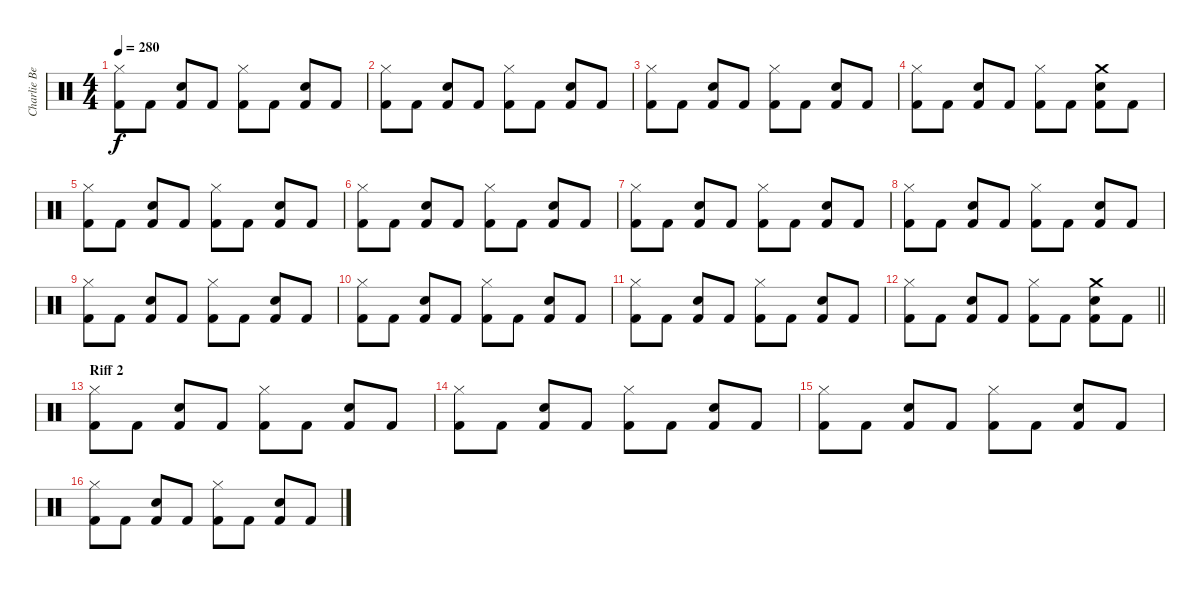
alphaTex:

\track ("Charlie Benante" "Charlie Be") {instrument percussion}
\staff {score}
\articulation defaults
\ts (4 4)
\tempo 280
\clef neutral
\ks c
("Hi-Hat (closed)" "Kick (hit) 2").8{dy f} "Kick (hit) 2".8 ("Snare (hit) 2" "Kick (hit) 2").8 "Kick (hit) 2".8 ("Hi-Hat (closed)" "Kick (hit) 2").8 "Kick (hit) 2".8 ("Snare (hit) 2" "Kick (hit) 2").8 "Kick (hit) 2".8 |
("Hi-Hat (closed)" "Kick (hit) 2").8 "Kick (hit) 2".8 ("Snare (hit) 2" "Kick (hit) 2").8 "Kick (hit) 2".8 ("Hi-Hat (closed)" "Kick (hit) 2").8 "Kick (hit) 2".8 ("Snare (hit) 2" "Kick (hit) 2").8 "Kick (hit) 2".8 |
("Hi-Hat (closed)" "Kick (hit) 2").8 "Kick (hit) 2".8 ("Snare (hit) 2" "Kick (hit) 2").8 "Kick (hit) 2".8 ("Hi-Hat (closed)" "Kick (hit) 2").8 "Kick (hit) 2".8 ("Snare (hit) 2" "Kick (hit) 2").8 "Kick (hit) 2".8 |
("Hi-Hat (closed)" "Kick (hit) 2").8 "Kick (hit) 2".8 ("Snare (hit) 2" "Kick (hit) 2").8 "Kick (hit) 2".8 ("Hi-Hat (closed)" "Kick (hit) 2").8 "Kick (hit) 2".8 ("Crash medium (hit)" "Snare (hit) 2" "Kick (hit) 2").8 "Kick (hit) 2".8 |
("Hi-Hat (closed)" "Kick (hit) 2").8 "Kick (hit) 2".8 ("Snare (hit) 2" "Kick (hit) 2").8 "Kick (hit) 2".8 ("Hi-Hat (closed)" "Kick (hit) 2").8 "Kick (hit) 2".8 ("Snare (hit) 2" "Kick (hit) 2").8 "Kick (hit) 2".8 |
("Hi-Hat (closed)" "Kick (hit) 2").8 "Kick (hit) 2".8 ("Snare (hit) 2" "Kick (hit) 2").8 "Kick (hit) 2".8 ("Hi-Hat (closed)" "Kick (hit) 2").8 "Kick (hit) 2".8 ("Snare (hit) 2" "Kick (hit) 2").8 "Kick (hit) 2".8 |
("Hi-Hat (closed)" "Kick (hit) 2").8 "Kick (hit) 2".8 ("Snare (hit) 2" "Kick (hit) 2").8 "Kick (hit) 2".8 ("Hi-Hat (closed)" "Kick (hit) 2").8 "Kick (hit) 2".8 ("Snare (hit) 2" "Kick (hit) 2").8 "Kick (hit) 2".8 |
("Hi-Hat (closed)" "Kick (hit) 2").8 "Kick (hit) 2".8 ("Snare (hit) 2" "Kick (hit) 2").8 "Kick (hit) 2".8 ("Hi-Hat (closed)" "Kick (hit) 2").8 "Kick (hit) 2".8 ("Snare (hit) 2" "Kick (hit) 2").8 "Kick (hit) 2".8 |
("Hi-Hat (closed)" "Kick (hit) 2").8 "Kick (hit) 2".8 ("Snare (hit) 2" "Kick (hit) 2").8 "Kick (hit) 2".8 ("Hi-Hat (closed)" "Kick (hit) 2").8 "Kick (hit) 2".8 ("Snare (hit) 2" "Kick (hit) 2").8 "Kick (hit) 2".8 |
("Hi-Hat (closed)" "Kick (hit) 2").8 "Kick (hit) 2".8 ("Snare (hit) 2" "Kick (hit) 2").8 "Kick (hit) 2".8 ("Hi-Hat (closed)" "Kick (hit) 2").8 "Kick (hit) 2".8 ("Snare (hit) 2" "Kick (hit) 2").8 "Kick (hit) 2".8 |
("Hi-Hat (closed)" "Kick (hit) 2").8 "Kick (hit) 2".8 ("Snare (hit) 2" "Kick (hit) 2").8 "Kick (hit) 2".8 ("Hi-Hat (closed)" "Kick (hit) 2").8 "Kick (hit) 2".8 ("Snare (hit) 2" "Kick (hit) 2").8 "Kick (hit) 2".8 |
\barLineRight lightlight
("Hi-Hat (closed)" "Kick (hit) 2").8 "Kick (hit) 2".8 ("Snare (hit) 2" "Kick (hit) 2").8 "Kick (hit) 2".8 ("Hi-Hat (closed)" "Kick (hit) 2").8 "Kick (hit) 2".8 ("Crash medium (hit)" "Snare (hit) 2" "Kick (hit) 2").8 "Kick (hit) 2".8 |
\section ("" "Riff 2")
("Hi-Hat (closed)" "Kick (hit) 2").8 "Kick (hit) 2".8 ("Snare (hit) 2" "Kick (hit) 2").8 "Kick (hit) 2".8 ("Hi-Hat (closed)" "Kick (hit) 2").8 "Kick (hit) 2".8 ("Snare (hit) 2" "Kick (hit) 2").8 "Kick (hit) 2".8 |
("Hi-Hat (closed)" "Kick (hit) 2").8 "Kick (hit) 2".8 ("Snare (hit) 2" "Kick (hit) 2").8 "Kick (hit) 2".8 ("Hi-Hat (closed)" "Kick (hit) 2").8 "Kick (hit) 2".8 ("Snare (hit) 2" "Kick (hit) 2").8 "Kick (hit) 2".8 |
("Hi-Hat (closed)" "Kick (hit) 2").8 "Kick (hit) 2".8 ("Snare (hit) 2" "Kick (hit) 2").8 "Kick (hit) 2".8 ("Hi-Hat (closed)" "Kick (hit) 2").8 "Kick (hit) 2".8 ("Snare (hit) 2" "Kick (hit) 2").8 "Kick (hit) 2".8 |
("Hi-Hat (closed)" "Kick (hit) 2").8 "Kick (hit) 2".8 ("Snare (hit) 2" "Kick (hit) 2").8 "Kick (hit) 2".8 ("Hi-Hat (closed)" "Kick (hit) 2").8 "Kick (hit) 2".8 ("Snare (hit) 2" "Kick (hit) 2").8 "Kick (hit) 2".8
